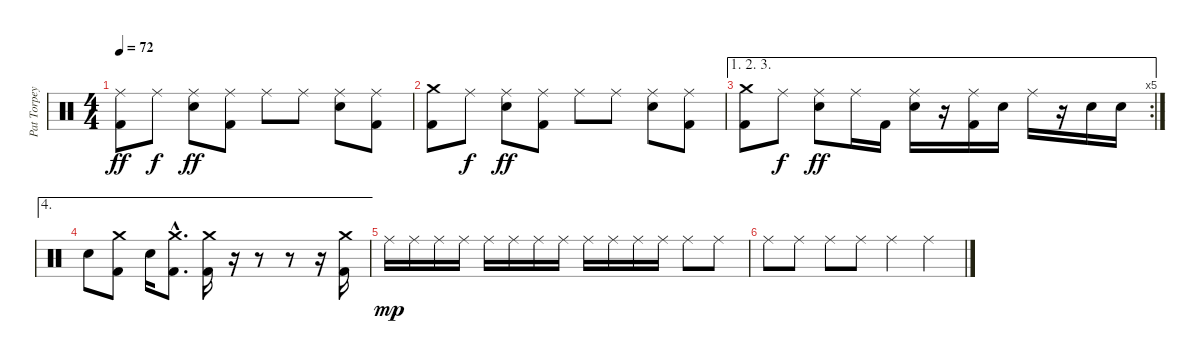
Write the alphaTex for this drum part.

\track ("Pat Torpey" "Pat Torpey") {instrument percussion}
\staff {score}
\articulation defaults
\ts (4 4)
\tempo 72
\clef neutral
\ks c
("Ride (middle)" "Kick (hit) 2").8{dy ff} "Ride (middle)".8{dy f} ("Ride (middle)" "Snare (hit) 2").8{dy ff} ("Ride (middle)" "Kick (hit) 2").8 "Ride (middle)".8 "Ride (middle)".8 ("Ride (middle)" "Snare (hit) 2").8 ("Ride (middle)" "Kick (hit) 2").8 |
("Crash medium (hit)" "Kick (hit) 2").8 "Ride (middle)".8{dy f} ("Ride (middle)" "Snare (hit) 2").8{dy ff} ("Ride (middle)" "Kick (hit) 2").8 "Ride (middle)".8 "Ride (middle)".8 ("Ride (middle)" "Snare (hit) 2").8 ("Ride (middle)" "Kick (hit) 2").8 |
\ae (1 2 3)
\rc 5
("Crash medium (hit)" "Kick (hit) 2").8 "Ride (middle)".8{dy f} ("Ride (middle)" "Snare (hit) 2").8{dy ff} "Ride (middle)".16 "Kick (hit) 2".16 ("Ride (middle)" "Snare (hit) 2").16 r.16 ("Ride (middle)" "Kick (hit) 2").16 "Snare (hit) 2".16 "Ride (middle)".16 r.16 "Snare (hit) 2".16 "Snare (hit) 2".16 |
\ae 4 "Snare (hit) 2".8
("Crash medium (hit)" "Kick (hit) 2").8 "Snare (hit) 2".16 ("Crash medium (hit)"{hac} "Kick (hit) 2"{hac}).8{d} ("Crash medium (hit)" "Kick (hit) 2").16 r.16 r.8 r.8 r.16 ("Crash medium (hit)" "Kick (hit) 2").16 |
"Ride (middle)".16{dy mp} "Ride (middle)".16 "Ride (middle)".16 "Ride (middle)".16 "Ride (middle)".16 "Ride (middle)".16 "Ride (middle)".16 "Ride (middle)".16 "Ride (middle)".16 "Ride (middle)".16 "Ride (middle)".16 "Ride (middle)".16 "Ride (middle)".8 "Ride (middle)".8 |
"Ride (middle)".8 "Ride (middle)".8 "Ride (middle)".8 "Ride (middle)".8 "Ride (middle)".4 "Ride (middle)".4
